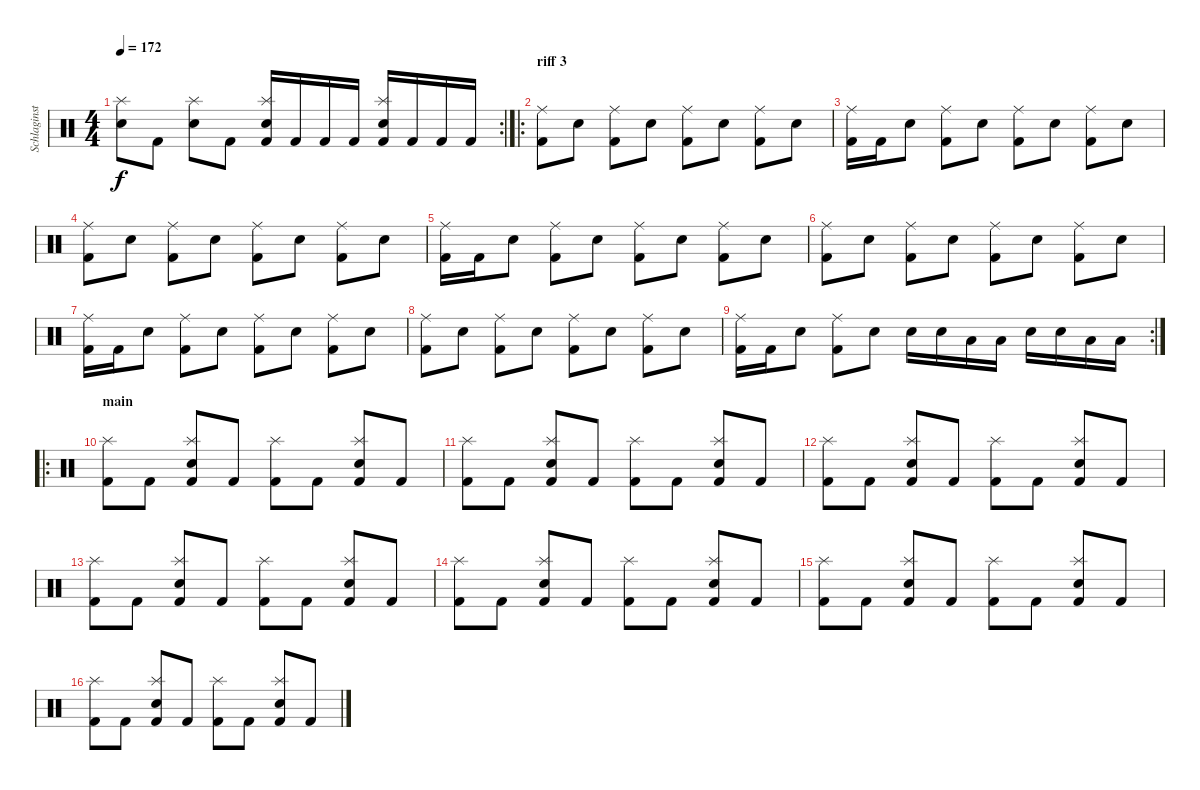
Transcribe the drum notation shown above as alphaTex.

\track ("Schlaginstrumente - Auswahl" "Schlaginst") {instrument percussion}
\staff {score}
\articulation defaults
\rc 2
\ts (4 4)
\tempo 172
\clef neutral
\ks c
("Electric Snare (hit)" "Splash (hit)").8{dy f} "Kick (hit) 2".8 ("Electric Snare (hit)" "Splash (hit)").8 "Kick (hit) 2".8 ("Electric Snare (hit)" "Splash (hit)" "Kick (hit) 2").16 "Kick (hit) 2".16 "Kick (hit) 2".16 "Kick (hit) 2".16 ("Electric Snare (hit)" "Splash (hit)" "Kick (hit) 2").16 "Kick (hit) 2".16 "Kick (hit) 2".16 "Kick (hit) 2".16 |
\ro
\section ("" "riff 3")
("Ride (middle)" "Kick (hit) 2").8 "Electric Snare (hit)".8 ("Ride (middle)" "Kick (hit) 2").8 "Electric Snare (hit)".8 ("Ride (middle)" "Kick (hit) 2").8 "Electric Snare (hit)".8 ("Ride (middle)" "Kick (hit) 2").8 "Electric Snare (hit)".8 |
("Ride (middle)" "Kick (hit) 2").16 "Kick (hit) 2".16 "Electric Snare (hit)".8 ("Ride (middle)" "Kick (hit) 2").8 "Electric Snare (hit)".8 ("Ride (middle)" "Kick (hit) 2").8 "Electric Snare (hit)".8 ("Ride (middle)" "Kick (hit) 2").8 "Electric Snare (hit)".8 |
("Ride (middle)" "Kick (hit) 2").8 "Electric Snare (hit)".8 ("Ride (middle)" "Kick (hit) 2").8 "Electric Snare (hit)".8 ("Ride (middle)" "Kick (hit) 2").8 "Electric Snare (hit)".8 ("Ride (middle)" "Kick (hit) 2").8 "Electric Snare (hit)".8 |
("Ride (middle)" "Kick (hit) 2").16 "Kick (hit) 2".16 "Electric Snare (hit)".8 ("Ride (middle)" "Kick (hit) 2").8 "Electric Snare (hit)".8 ("Ride (middle)" "Kick (hit) 2").8 "Electric Snare (hit)".8 ("Ride (middle)" "Kick (hit) 2").8 "Electric Snare (hit)".8 |
("Ride (middle)" "Kick (hit) 2").8 "Electric Snare (hit)".8 ("Ride (middle)" "Kick (hit) 2").8 "Electric Snare (hit)".8 ("Ride (middle)" "Kick (hit) 2").8 "Electric Snare (hit)".8 ("Ride (middle)" "Kick (hit) 2").8 "Electric Snare (hit)".8 |
("Ride (middle)" "Kick (hit) 2").16 "Kick (hit) 2".16 "Electric Snare (hit)".8 ("Ride (middle)" "Kick (hit) 2").8 "Electric Snare (hit)".8 ("Ride (middle)" "Kick (hit) 2").8 "Electric Snare (hit)".8 ("Ride (middle)" "Kick (hit) 2").8 "Electric Snare (hit)".8 |
("Ride (middle)" "Kick (hit) 2").8 "Electric Snare (hit)".8 ("Ride (middle)" "Kick (hit) 2").8 "Electric Snare (hit)".8 ("Ride (middle)" "Kick (hit) 2").8 "Electric Snare (hit)".8 ("Ride (middle)" "Kick (hit) 2").8 "Electric Snare (hit)".8 |
\rc 2
("Ride (middle)" "Kick (hit) 2").16 "Kick (hit) 2".16 "Electric Snare (hit)".8 ("Ride (middle)" "Kick (hit) 2").8 "Electric Snare (hit)".8 "Electric Snare (hit)".16 "Electric Snare (hit)".16 "Low Tom (hit)".16 "Low Tom (hit)".16 "Electric Snare (hit)".16 "Electric Snare (hit)".16 "Low Tom (hit)".16 "Low Tom (hit)".16 |
\ro
\section ("" "main")
("Splash (hit)" "Kick (hit) 2").8 "Kick (hit) 2".8 ("Electric Snare (hit)" "Splash (hit)" "Kick (hit) 2").8 "Kick (hit) 2".8 ("Splash (hit)" "Kick (hit) 2").8 "Kick (hit) 2".8 ("Electric Snare (hit)" "Splash (hit)" "Kick (hit) 2").8 "Kick (hit) 2".8 |
("Splash (hit)" "Kick (hit) 2").8 "Kick (hit) 2".8 ("Electric Snare (hit)" "Splash (hit)" "Kick (hit) 2").8 "Kick (hit) 2".8 ("Splash (hit)" "Kick (hit) 2").8 "Kick (hit) 2".8 ("Electric Snare (hit)" "Splash (hit)" "Kick (hit) 2").8 "Kick (hit) 2".8 |
("Splash (hit)" "Kick (hit) 2").8 "Kick (hit) 2".8 ("Electric Snare (hit)" "Splash (hit)" "Kick (hit) 2").8 "Kick (hit) 2".8 ("Splash (hit)" "Kick (hit) 2").8 "Kick (hit) 2".8 ("Electric Snare (hit)" "Splash (hit)" "Kick (hit) 2").8 "Kick (hit) 2".8 |
("Splash (hit)" "Kick (hit) 2").8 "Kick (hit) 2".8 ("Electric Snare (hit)" "Splash (hit)" "Kick (hit) 2").8 "Kick (hit) 2".8 ("Splash (hit)" "Kick (hit) 2").8 "Kick (hit) 2".8 ("Electric Snare (hit)" "Splash (hit)" "Kick (hit) 2").8 "Kick (hit) 2".8 |
("Splash (hit)" "Kick (hit) 2").8 "Kick (hit) 2".8 ("Electric Snare (hit)" "Splash (hit)" "Kick (hit) 2").8 "Kick (hit) 2".8 ("Splash (hit)" "Kick (hit) 2").8 "Kick (hit) 2".8 ("Electric Snare (hit)" "Splash (hit)" "Kick (hit) 2").8 "Kick (hit) 2".8 |
("Splash (hit)" "Kick (hit) 2").8 "Kick (hit) 2".8 ("Electric Snare (hit)" "Splash (hit)" "Kick (hit) 2").8 "Kick (hit) 2".8 ("Splash (hit)" "Kick (hit) 2").8 "Kick (hit) 2".8 ("Electric Snare (hit)" "Splash (hit)" "Kick (hit) 2").8 "Kick (hit) 2".8 |
("Splash (hit)" "Kick (hit) 2").8 "Kick (hit) 2".8 ("Electric Snare (hit)" "Splash (hit)" "Kick (hit) 2").8 "Kick (hit) 2".8 ("Splash (hit)" "Kick (hit) 2").8 "Kick (hit) 2".8 ("Electric Snare (hit)" "Splash (hit)" "Kick (hit) 2").8 "Kick (hit) 2".8
